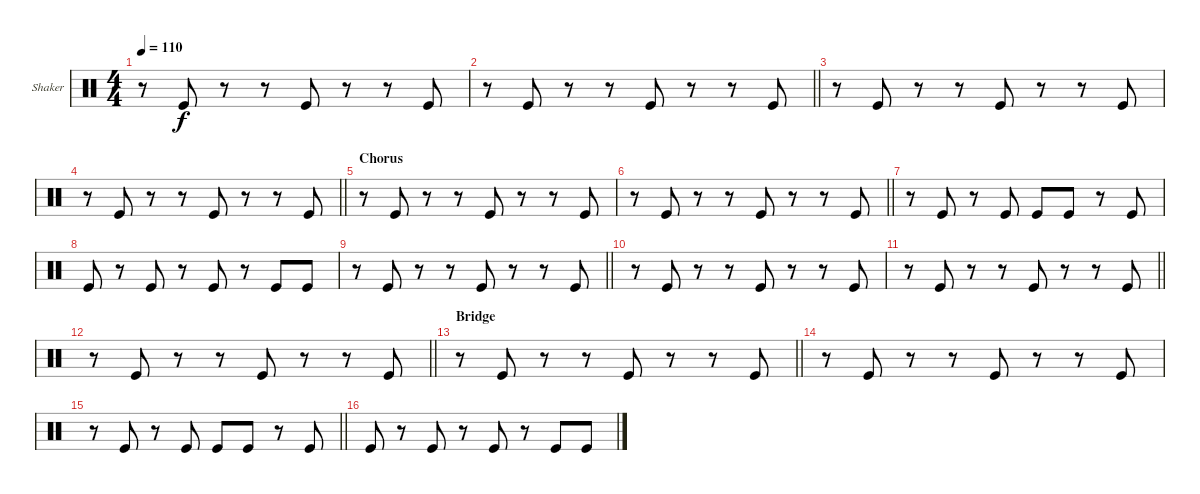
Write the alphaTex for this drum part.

\bracketExtendMode groupsimilarinstruments
\firstSystemTrackNameOrientation horizontal
\otherSystemsTrackNameOrientation horizontal
\track ("Shaker" "Shaker") {instrument percussion}
\staff {score}
\articulation defaults
\ts (4 4)
\tempo 110
\clef neutral
\ks c
r.8{dy f} "Kick (hit)".8 r.8 r.8 "Kick (hit)".8 r.8 r.8 "Kick (hit)".8 |
\barLineRight lightlight
r.8 "Kick (hit)".8 r.8 r.8 "Kick (hit)".8 r.8 r.8 "Kick (hit)".8 |
r.8 "Kick (hit)".8 r.8 r.8 "Kick (hit)".8 r.8 r.8 "Kick (hit)".8 |
\barLineRight lightlight
r.8 "Kick (hit)".8 r.8 r.8 "Kick (hit)".8 r.8 r.8 "Kick (hit)".8 |
\section ("" "Chorus")
r.8 "Kick (hit)".8 r.8 r.8 "Kick (hit)".8 r.8 r.8 "Kick (hit)".8 |
\barLineRight lightlight
r.8 "Kick (hit)".8 r.8 r.8 "Kick (hit)".8 r.8 r.8 "Kick (hit)".8 |
r.8 "Kick (hit)".8 r.8 "Kick (hit)".8 "Kick (hit)".8 "Kick (hit)".8 r.8 "Kick (hit)".8 |
"Kick (hit)".8 r.8 "Kick (hit)".8 r.8 "Kick (hit)".8 r.8 "Kick (hit)".8 "Kick (hit)".8 |
\barLineRight lightlight
r.8 "Kick (hit)".8 r.8 r.8 "Kick (hit)".8 r.8 r.8 "Kick (hit)".8 |
r.8 "Kick (hit)".8 r.8 r.8 "Kick (hit)".8 r.8 r.8 "Kick (hit)".8 |
\barLineRight lightlight
r.8 "Kick (hit)".8 r.8 r.8 "Kick (hit)".8 r.8 r.8 "Kick (hit)".8 |
\barLineRight lightlight
r.8 "Kick (hit)".8 r.8 r.8 "Kick (hit)".8 r.8 r.8 "Kick (hit)".8 |
\section ("" "Bridge")
\barLineRight lightlight
r.8 "Kick (hit)".8 r.8 r.8 "Kick (hit)".8 r.8 r.8 "Kick (hit)".8 |
r.8 "Kick (hit)".8 r.8 r.8 "Kick (hit)".8 r.8 r.8 "Kick (hit)".8 |
\barLineRight lightlight
r.8 "Kick (hit)".8 r.8 "Kick (hit)".8 "Kick (hit)".8 "Kick (hit)".8 r.8 "Kick (hit)".8 |
"Kick (hit)".8 r.8 "Kick (hit)".8 r.8 "Kick (hit)".8 r.8 "Kick (hit)".8 "Kick (hit)".8
